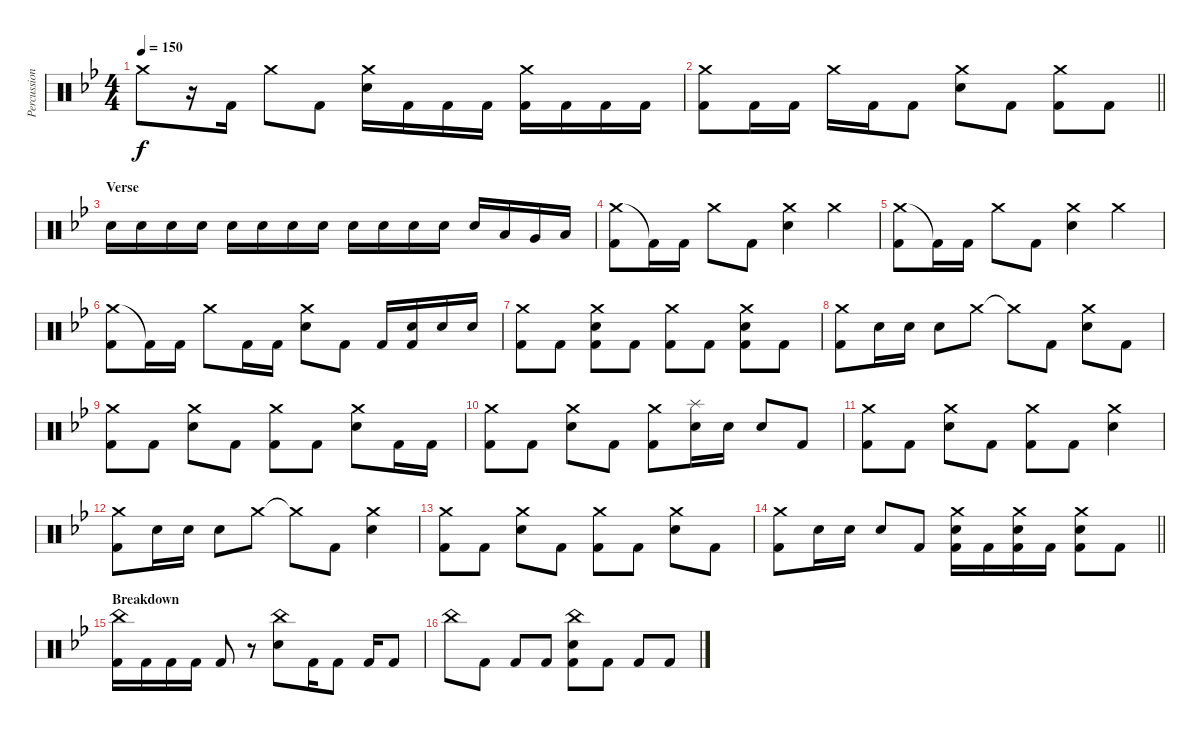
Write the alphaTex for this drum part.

\track ("Percussion" "Percussion") {instrument percussion}
\staff {score}
\articulation defaults
\ts (4 4)
\tempo 150
\clef neutral
\ks bb "Crash medium (hit)".8{dy f}
r.16 "Kick (hit) 2".16 "Crash medium (hit)".8 "Kick (hit) 2".8 ("Crash medium (hit)" "Electric Snare (hit)").16 "Kick (hit) 2".16 "Kick (hit) 2".16 "Kick (hit) 2".16 ("Crash medium (hit)" "Kick (hit) 2").16 "Kick (hit) 2".16 "Kick (hit) 2".16 "Kick (hit) 2".16 |
\barLineRight lightlight
("Crash medium (hit)" "Kick (hit) 2").8 "Kick (hit) 2".16 "Kick (hit) 2".16 "Crash medium (hit)".16 "Kick (hit) 2".16 "Kick (hit) 2".8 ("Crash medium (hit)" "Electric Snare (hit)").8 "Kick (hit) 2".8 ("Crash medium (hit)" "Kick (hit) 2").8 "Kick (hit) 2".8 |
\section ("" "Verse")
"Electric Snare (hit)".16 "Electric Snare (hit)".16 "Electric Snare (hit)".16 "Electric Snare (hit)".16 "Electric Snare (hit)".16 "Electric Snare (hit)".16 "Electric Snare (hit)".16 "Electric Snare (hit)".16 "Electric Snare (hit)".16 "Electric Snare (hit)".16 "Electric Snare (hit)".16 "Electric Snare (hit)".16 "Electric Snare (hit)".16 "Low Tom (hit)".16 "Very Low Tom (hit)".16 "Low Floor Tom (hit)".16 |
("Crash medium (hit)" "Kick (hit) 2").8 "Kick (hit) 2"{t}.16 "Kick (hit) 2".16 "Crash medium (hit)".8 "Kick (hit) 2".8 ("Crash medium (hit)" "Electric Snare (hit)").4 "Crash medium (hit)".4 |
("Crash medium (hit)" "Kick (hit) 2").8 "Kick (hit) 2"{t}.16 "Kick (hit) 2".16 "Crash medium (hit)".8 "Kick (hit) 2".8 ("Crash medium (hit)" "Electric Snare (hit)").4 "Crash medium (hit)".4 |
("Crash medium (hit)" "Kick (hit) 2").8 "Kick (hit) 2"{t}.16 "Kick (hit) 2".16 "Crash medium (hit)".8 "Kick (hit) 2".16 "Kick (hit) 2".16 ("Crash medium (hit)" "Electric Snare (hit)").8 "Kick (hit) 2".8 "Kick (hit) 2".16 ("Electric Snare (hit)" "Kick (hit) 2").16 "Electric Snare (hit)".16 "Electric Snare (hit)".16 |
("Crash medium (hit)" "Kick (hit) 2").8 "Kick (hit) 2".8 ("Crash medium (hit)" "Electric Snare (hit)" "Kick (hit) 2").8 "Kick (hit) 2".8 ("Crash medium (hit)" "Kick (hit) 2").8 "Kick (hit) 2".8 ("Crash medium (hit)" "Electric Snare (hit)" "Kick (hit) 2").8 "Kick (hit) 2".8 |
("Crash medium (hit)" "Kick (hit) 2").8 "Electric Snare (hit)".16 "Electric Snare (hit)".16 "Electric Snare (hit)".8 "Crash medium (hit)".8 "Crash medium (hit)"{t}.8 "Kick (hit) 2".8 ("Crash medium (hit)" "Electric Snare (hit)").8 "Kick (hit) 2".8 |
("Crash medium (hit)" "Kick (hit) 2").8 "Kick (hit) 2".8 ("Crash medium (hit)" "Electric Snare (hit)").8 "Kick (hit) 2".8 ("Crash medium (hit)" "Kick (hit) 2").8 "Kick (hit) 2".8 ("Crash medium (hit)" "Electric Snare (hit)").8 "Kick (hit) 2".16 "Kick (hit) 2".16 |
("Crash medium (hit)" "Kick (hit) 2").8 "Kick (hit) 2".8 ("Crash medium (hit)" "Electric Snare (hit)").8 "Kick (hit) 2".8 ("Crash medium (hit)" "Kick (hit) 2").8 ("Splash (hit)" "Electric Snare (hit)").16 "Electric Snare (hit)".16 "Electric Snare (hit)".8 "Kick (hit) 2".8 |
("Crash medium (hit)" "Kick (hit) 2").8 "Kick (hit) 2".8 ("Crash medium (hit)" "Electric Snare (hit)").8 "Kick (hit) 2".8 ("Crash medium (hit)" "Kick (hit) 2").8 "Kick (hit) 2".8 ("Crash medium (hit)" "Electric Snare (hit)").4 |
("Crash medium (hit)" "Kick (hit) 2").8 "Electric Snare (hit)".16 "Electric Snare (hit)".16 "Electric Snare (hit)".8 "Crash medium (hit)".8 "Crash medium (hit)"{t}.8 "Kick (hit) 2".8 ("Crash medium (hit)" "Electric Snare (hit)").4 |
("Crash medium (hit)" "Kick (hit) 2").8 "Kick (hit) 2".8 ("Crash medium (hit)" "Electric Snare (hit)").8 "Kick (hit) 2".8 ("Crash medium (hit)" "Kick (hit) 2").8 "Kick (hit) 2".8 ("Crash medium (hit)" "Electric Snare (hit)").8 "Kick (hit) 2".8 |
\barLineRight lightlight
("Crash medium (hit)" "Kick (hit) 2").8 "Electric Snare (hit)".16 "Electric Snare (hit)".16 "Electric Snare (hit)".8 "Kick (hit) 2".8 ("Crash medium (hit)" "Electric Snare (hit)" "Kick (hit) 2").16 "Kick (hit) 2".16 ("Crash medium (hit)" "Electric Snare (hit)" "Kick (hit) 2").16 "Kick (hit) 2".16 ("Crash medium (hit)" "Electric Snare (hit)" "Kick (hit) 2").8 "Kick (hit) 2".8 |
\section ("" "Breakdown")
("China (hit)" "Kick (hit) 2").16 "Kick (hit) 2".16 "Kick (hit) 2".16 "Kick (hit) 2".16 "Kick (hit) 2".8 r.8 ("China (hit)" "Electric Snare (hit)").8 "Kick (hit) 2".16 "Kick (hit) 2".8 "Kick (hit) 2".16 "Kick (hit) 2".8 |
"China (hit)".8 "Kick (hit) 2".8 "Kick (hit) 2".8 "Kick (hit) 2".8 ("China (hit)" "Electric Snare (hit)" "Kick (hit) 2").8 "Kick (hit) 2".8 "Kick (hit) 2".8 "Kick (hit) 2".8
